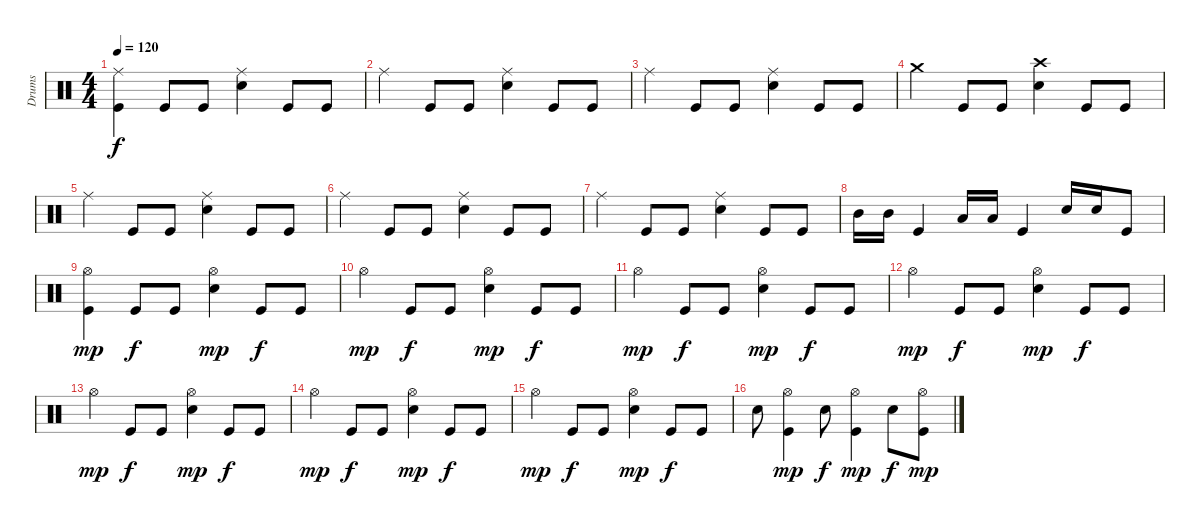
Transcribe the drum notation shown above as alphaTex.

\track ("Drums" "Drums") {instrument percussion}
\staff {score}
\articulation defaults
\ts (4 4)
\tempo 120
\clef neutral
\ks c
("Ride (middle)" "Kick (hit)").4{dy f} "Kick (hit)".8 "Kick (hit)".8 ("Ride (middle)" "Electric Snare (hit)").4 "Kick (hit)".8 "Kick (hit)".8 |
"Ride (middle)".4 "Kick (hit)".8 "Kick (hit)".8 ("Ride (middle)" "Electric Snare (hit)").4 "Kick (hit)".8 "Kick (hit)".8 |
"Ride (middle)".4 "Kick (hit)".8 "Kick (hit)".8 ("Ride (middle)" "Electric Snare (hit)").4 "Kick (hit)".8 "Kick (hit)".8 |
"Crash medium (hit)".4 "Kick (hit)".8 "Kick (hit)".8 ("Crash high (hit)" "Electric Snare (hit)").4 "Kick (hit)".8 "Kick (hit)".8 |
"Ride (middle)".4 "Kick (hit)".8 "Kick (hit)".8 ("Ride (middle)" "Electric Snare (hit)").4 "Kick (hit)".8 "Kick (hit)".8 |
"Ride (middle)".4 "Kick (hit)".8 "Kick (hit)".8 ("Ride (middle)" "Electric Snare (hit)").4 "Kick (hit)".8 "Kick (hit)".8 |
"Ride (middle)".4 "Kick (hit)".8 "Kick (hit)".8 ("Ride (middle)" "Electric Snare (hit)").4 "Kick (hit)".8 "Kick (hit)".8 |
"Mid Tom (hit)".16 "Mid Tom (hit)".16 "Kick (hit)".4 "Low Tom (hit)".16 "Low Tom (hit)".16 "Kick (hit)".4 "Electric Snare (hit)".16 "Electric Snare (hit)".16 "Kick (hit)".8 |
("Hi-Hat (open)" "Kick (hit)").4{dy mp} "Kick (hit)".8{dy f} "Kick (hit)".8 ("Hi-Hat (open)" "Electric Snare (hit)").4{dy mp} "Kick (hit)".8{dy f} "Kick (hit)".8 |
"Hi-Hat (open)".4{dy mp} "Kick (hit)".8{dy f} "Kick (hit)".8 ("Hi-Hat (open)" "Electric Snare (hit)").4{dy mp} "Kick (hit)".8{dy f} "Kick (hit)".8 |
"Hi-Hat (open)".4{dy mp} "Kick (hit)".8{dy f} "Kick (hit)".8 ("Hi-Hat (open)" "Electric Snare (hit)").4{dy mp} "Kick (hit)".8{dy f} "Kick (hit)".8 |
"Hi-Hat (open)".4{dy mp} "Kick (hit)".8{dy f} "Kick (hit)".8 ("Hi-Hat (open)" "Electric Snare (hit)").4{dy mp} "Kick (hit)".8{dy f} "Kick (hit)".8 |
"Hi-Hat (open)".4{dy mp} "Kick (hit)".8{dy f} "Kick (hit)".8 ("Hi-Hat (open)" "Electric Snare (hit)").4{dy mp} "Kick (hit)".8{dy f} "Kick (hit)".8 |
"Hi-Hat (open)".4{dy mp} "Kick (hit)".8{dy f} "Kick (hit)".8 ("Hi-Hat (open)" "Electric Snare (hit)").4{dy mp} "Kick (hit)".8{dy f} "Kick (hit)".8 |
"Hi-Hat (open)".4{dy mp} "Kick (hit)".8{dy f} "Kick (hit)".8 ("Hi-Hat (open)" "Electric Snare (hit)").4{dy mp} "Kick (hit)".8{dy f} "Kick (hit)".8 |
"Electric Snare (hit)".8 ("Hi-Hat (open)" "Kick (hit)").4{dy mp} "Electric Snare (hit)".8{dy f} ("Hi-Hat (open)" "Kick (hit)").4{dy mp} "Electric Snare (hit)".8{dy f} ("Hi-Hat (open)" "Kick (hit)").8{dy mp}
